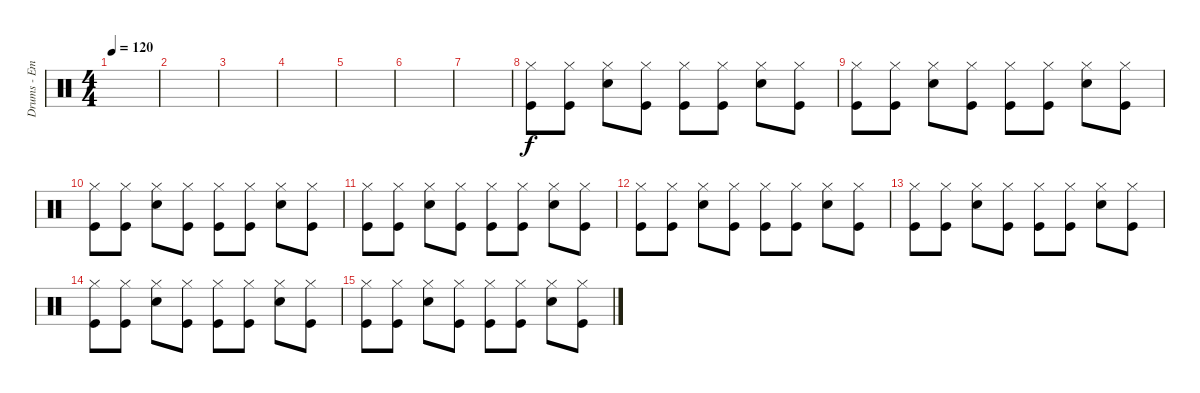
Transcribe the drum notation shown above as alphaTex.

\track ("Drums - Emhyr var Emreis" "Drums - Em") {instrument percussion}
\staff {score}
\articulation defaults
\ts (4 4)
\tempo 120
\clef neutral
\ks c
|
|
|
|
|
|
|
("Hi-Hat (closed)" "Kick (hit)").8 ("Hi-Hat (closed)" "Kick (hit)").8 ("Hi-Hat (closed)" "Electric Snare (hit)").8 ("Hi-Hat (closed)" "Kick (hit)").8 ("Hi-Hat (closed)" "Kick (hit)").8 ("Hi-Hat (closed)" "Kick (hit)").8 ("Hi-Hat (closed)" "Hand Clap (hit)").8 ("Hi-Hat (closed)" "Kick (hit)").8 |
("Hi-Hat (closed)" "Kick (hit)").8 ("Hi-Hat (closed)" "Kick (hit)").8 ("Hi-Hat (closed)" "Electric Snare (hit)").8 ("Hi-Hat (closed)" "Kick (hit)").8 ("Hi-Hat (closed)" "Kick (hit)").8 ("Hi-Hat (closed)" "Kick (hit)").8 ("Hi-Hat (closed)" "Hand Clap (hit)").8 ("Hi-Hat (closed)" "Kick (hit)").8 |
("Hi-Hat (closed)" "Kick (hit)").8 ("Hi-Hat (closed)" "Kick (hit)").8 ("Hi-Hat (closed)" "Electric Snare (hit)").8 ("Hi-Hat (closed)" "Kick (hit)").8 ("Hi-Hat (closed)" "Kick (hit)").8 ("Hi-Hat (closed)" "Kick (hit)").8 ("Hi-Hat (closed)" "Hand Clap (hit)").8 ("Hi-Hat (closed)" "Kick (hit)").8 |
("Hi-Hat (closed)" "Kick (hit)").8 ("Hi-Hat (closed)" "Kick (hit)").8 ("Hi-Hat (closed)" "Electric Snare (hit)").8 ("Hi-Hat (closed)" "Kick (hit)").8 ("Hi-Hat (closed)" "Kick (hit)").8 ("Hi-Hat (closed)" "Kick (hit)").8 ("Hi-Hat (closed)" "Hand Clap (hit)").8 ("Hi-Hat (closed)" "Kick (hit)").8 |
("Hi-Hat (closed)" "Kick (hit)").8 ("Hi-Hat (closed)" "Kick (hit)").8 ("Hi-Hat (closed)" "Electric Snare (hit)").8 ("Hi-Hat (closed)" "Kick (hit)").8 ("Hi-Hat (closed)" "Kick (hit)").8 ("Hi-Hat (closed)" "Kick (hit)").8 ("Hi-Hat (closed)" "Hand Clap (hit)").8 ("Hi-Hat (closed)" "Kick (hit)").8 |
("Hi-Hat (closed)" "Kick (hit)").8 ("Hi-Hat (closed)" "Kick (hit)").8 ("Hi-Hat (closed)" "Electric Snare (hit)").8 ("Hi-Hat (closed)" "Kick (hit)").8 ("Hi-Hat (closed)" "Kick (hit)").8 ("Hi-Hat (closed)" "Kick (hit)").8 ("Hi-Hat (closed)" "Hand Clap (hit)").8 ("Hi-Hat (closed)" "Kick (hit)").8 |
("Hi-Hat (closed)" "Kick (hit)").8 ("Hi-Hat (closed)" "Kick (hit)").8 ("Hi-Hat (closed)" "Electric Snare (hit)").8 ("Hi-Hat (closed)" "Kick (hit)").8 ("Hi-Hat (closed)" "Kick (hit)").8 ("Hi-Hat (closed)" "Kick (hit)").8 ("Hi-Hat (closed)" "Hand Clap (hit)").8 ("Hi-Hat (closed)" "Kick (hit)").8 |
("Hi-Hat (closed)" "Kick (hit)").8 ("Hi-Hat (closed)" "Kick (hit)").8 ("Hi-Hat (closed)" "Electric Snare (hit)").8 ("Hi-Hat (closed)" "Kick (hit)").8 ("Hi-Hat (closed)" "Kick (hit)").8 ("Hi-Hat (closed)" "Kick (hit)").8 ("Hi-Hat (closed)" "Hand Clap (hit)").8 ("Hi-Hat (closed)" "Kick (hit)").8
